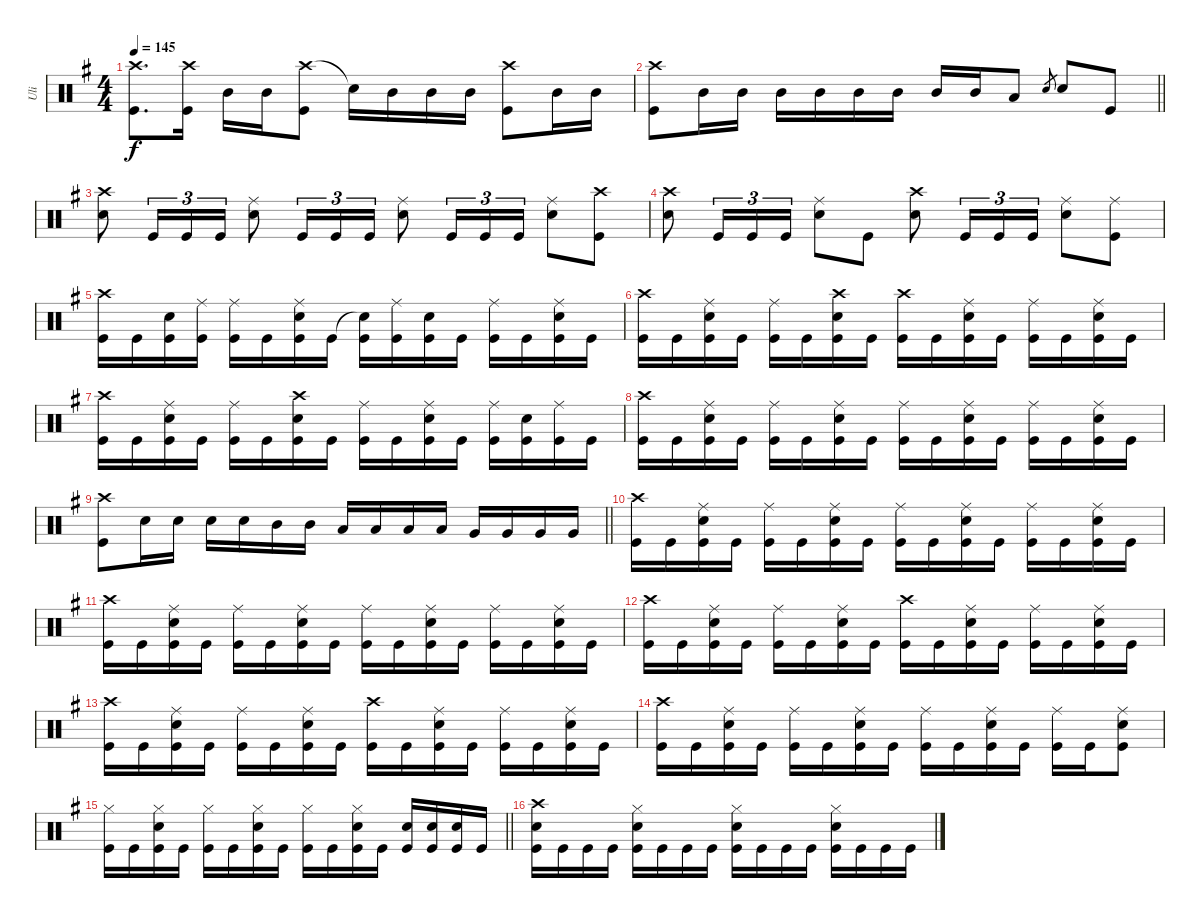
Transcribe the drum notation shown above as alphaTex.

\track ("Uli" "Uli") {instrument percussion}
\staff {score}
\articulation defaults
\ts (4 4)
\tempo 145
\clef neutral
\ks eminor
("Crash high (hit)" "Kick (hit)").8{d dy f} ("Crash high (hit)" "Kick (hit)").16 "Mid Tom (hit)".16 "Mid Tom (hit)".16 ("Crash high (hit)" "Kick (hit)").8 "Snare (hit)"{t}.16 "Mid Tom (hit)".16 "Mid Tom (hit)".16 "Mid Tom (hit)".16 ("Crash high (hit)" "Kick (hit)").8 "Mid Tom (hit)".16 "Mid Tom (hit)".16 |
\barLineRight lightlight
("Crash high (hit)" "Kick (hit)").8 "Mid Tom (hit)".16 "Mid Tom (hit)".16 "Mid Tom (hit)".16 "Mid Tom (hit)".16 "Mid Tom (hit)".16 "Mid Tom (hit)".16 "Mid Tom (hit)".16 "Mid Tom (hit)".16 "Low Tom (hit)".8 "Snare (hit) 2".8{gr} "Snare (hit) 2".8 "Kick (hit)".8 |
("Crash high (hit)" "Snare (hit) 2").8 "Kick (hit)".16{tu (3 2)} "Kick (hit)".16{tu (3 2)} "Kick (hit)".16{tu (3 2)} ("Ride (middle)" "Snare (hit) 2").8 "Kick (hit)".16{tu (3 2)} "Kick (hit)".16{tu (3 2)} "Kick (hit)".16{tu (3 2)} ("Ride (middle)" "Snare (hit) 2").8 "Kick (hit)".16{tu (3 2)} "Kick (hit)".16{tu (3 2)} "Kick (hit)".16{tu (3 2)} ("Ride (middle)" "Snare (hit) 2").8 ("Crash high (hit)" "Kick (hit)").8 |
("Crash high (hit)" "Snare (hit) 2").8 "Kick (hit)".16{tu (3 2)} "Kick (hit)".16{tu (3 2)} "Kick (hit)".16{tu (3 2)} ("Ride (middle)" "Snare (hit) 2").8 "Kick (hit)".8 ("Crash high (hit)" "Snare (hit) 2").8 "Kick (hit)".16{tu (3 2)} "Kick (hit)".16{tu (3 2)} "Kick (hit)".16{tu (3 2)} ("Ride (middle)" "Snare (hit) 2").8 ("Ride (middle)" "Kick (hit)").8 |
("Crash high (hit)" "Kick (hit)").16 "Kick (hit)".16 ("Snare (hit) 2" "Kick (hit)").16 ("Ride (middle)" "Kick (hit)").16 ("Ride (middle)" "Kick (hit)").16 "Kick (hit)".16 ("Ride (middle)" "Snare (hit) 2" "Kick (hit)").16 "Kick (hit)".16 ("Snare (hit)"{t} "Kick (hit)").16 ("Ride (middle)" "Kick (hit)").16 ("Snare (hit) 2" "Kick (hit)").16 "Kick (hit)".16 ("Ride (middle)" "Kick (hit)").16 "Kick (hit)".16 ("Ride (middle)" "Snare (hit) 2" "Kick (hit)").16 "Kick (hit)".16 |
("Crash high (hit)" "Kick (hit)").16 "Kick (hit)".16 ("Ride (middle)" "Snare (hit) 2" "Kick (hit)").16 "Kick (hit)".16 ("Ride (middle)" "Kick (hit)").16 "Kick (hit)".16 ("Crash high (hit)" "Snare (hit) 2" "Kick (hit)").16 "Kick (hit)".16 ("Crash high (hit)" "Kick (hit)").16 "Kick (hit)".16 ("Ride (middle)" "Snare (hit) 2" "Kick (hit)").16 "Kick (hit)".16 ("Ride (middle)" "Kick (hit)").16 "Kick (hit)".16 ("Ride (middle)" "Snare (hit) 2" "Kick (hit)").16 "Kick (hit)".16 |
("Crash high (hit)" "Kick (hit)").16 "Kick (hit)".16 ("Ride (middle)" "Snare (hit) 2" "Kick (hit)").16 "Kick (hit)".16 ("Ride (middle)" "Kick (hit)").16 "Kick (hit)".16 ("Crash high (hit)" "Snare (hit) 2" "Kick (hit)").16 "Kick (hit)".16 ("Ride (middle)" "Kick (hit)").16 "Kick (hit)".16 ("Ride (middle)" "Snare (hit) 2" "Kick (hit)").16 "Kick (hit)".16 ("Ride (middle)" "Kick (hit)").16 ("Snare (hit) 2" "Kick (hit)").16 ("Ride (middle)" "Kick (hit)").16 "Kick (hit)".16 |
("Crash high (hit)" "Kick (hit)").16 "Kick (hit)".16 ("Ride (middle)" "Snare (hit) 2" "Kick (hit)").16 "Kick (hit)".16 ("Ride (middle)" "Kick (hit)").16 "Kick (hit)".16 ("Ride (middle)" "Snare (hit) 2" "Kick (hit)").16 "Kick (hit)".16 ("Ride (middle)" "Kick (hit)").16 "Kick (hit)".16 ("Ride (middle)" "Snare (hit) 2" "Kick (hit)").16 "Kick (hit)".16 ("Ride (middle)" "Kick (hit)").16 "Kick (hit)".16 ("Ride (middle)" "Snare (hit) 2" "Kick (hit)").16 "Kick (hit)".16 |
\barLineRight lightlight
("Crash high (hit)" "Kick (hit)").8 "Snare (hit) 2".16 "Snare (hit) 2".16 "Snare (hit) 2".16 "Snare (hit) 2".16 "Mid Tom (hit)".16 "Mid Tom (hit)".16 "Low Tom (hit)".16 "Low Tom (hit)".16 "Low Tom (hit)".16 "Low Tom (hit)".16 "Very Low Tom (hit)".16 "Very Low Tom (hit)".16 "Very Low Tom (hit)".16 "Very Low Tom (hit)".16 |
("Crash high (hit)" "Kick (hit)").16 "Kick (hit)".16 ("Ride (middle)" "Snare (hit) 2" "Kick (hit)").16 "Kick (hit)".16 ("Ride (middle)" "Kick (hit)").16 "Kick (hit)".16 ("Ride (middle)" "Snare (hit) 2" "Kick (hit)").16 "Kick (hit)".16 ("Ride (middle)" "Kick (hit)").16 "Kick (hit)".16 ("Ride (middle)" "Snare (hit) 2" "Kick (hit)").16 "Kick (hit)".16 ("Ride (middle)" "Kick (hit)").16 "Kick (hit)".16 ("Ride (middle)" "Snare (hit) 2" "Kick (hit)").16 "Kick (hit)".16 |
("Crash high (hit)" "Kick (hit)").16 "Kick (hit)".16 ("Ride (middle)" "Snare (hit) 2" "Kick (hit)").16 "Kick (hit)".16 ("Ride (middle)" "Kick (hit)").16 "Kick (hit)".16 ("Ride (middle)" "Snare (hit) 2" "Kick (hit)").16 "Kick (hit)".16 ("Ride (middle)" "Kick (hit)").16 "Kick (hit)".16 ("Ride (middle)" "Snare (hit) 2" "Kick (hit)").16 "Kick (hit)".16 ("Ride (middle)" "Kick (hit)").16 "Kick (hit)".16 ("Ride (middle)" "Snare (hit) 2" "Kick (hit)").16 "Kick (hit)".16 |
("Crash high (hit)" "Kick (hit)").16 "Kick (hit)".16 ("Ride (middle)" "Snare (hit) 2" "Kick (hit)").16 "Kick (hit)".16 ("Ride (middle)" "Kick (hit)").16 "Kick (hit)".16 ("Ride (middle)" "Snare (hit) 2" "Kick (hit)").16 "Kick (hit)".16 ("Crash high (hit)" "Kick (hit)").16 "Kick (hit)".16 ("Ride (middle)" "Snare (hit) 2" "Kick (hit)").16 "Kick (hit)".16 ("Ride (middle)" "Kick (hit)").16 "Kick (hit)".16 ("Ride (middle)" "Snare (hit) 2" "Kick (hit)").16 "Kick (hit)".16 |
("Crash high (hit)" "Kick (hit)").16 "Kick (hit)".16 ("Ride (middle)" "Snare (hit) 2" "Kick (hit)").16 "Kick (hit)".16 ("Ride (middle)" "Kick (hit)").16 "Kick (hit)".16 ("Ride (middle)" "Snare (hit) 2" "Kick (hit)").16 "Kick (hit)".16 ("Crash high (hit)" "Kick (hit)").16 "Kick (hit)".16 ("Ride (middle)" "Snare (hit) 2" "Kick (hit)").16 "Kick (hit)".16 ("Ride (middle)" "Kick (hit)").16 "Kick (hit)".16 ("Ride (middle)" "Snare (hit) 2" "Kick (hit)").16 "Kick (hit)".16 |
("Crash high (hit)" "Kick (hit)").16 "Kick (hit)".16 ("Ride (middle)" "Snare (hit) 2" "Kick (hit)").16 "Kick (hit)".16 ("Ride (middle)" "Kick (hit)").16 "Kick (hit)".16 ("Ride (middle)" "Snare (hit) 2" "Kick (hit)").16 "Kick (hit)".16 ("Ride (middle)" "Kick (hit)").16 "Kick (hit)".16 ("Ride (middle)" "Snare (hit) 2" "Kick (hit)").16 "Kick (hit)".16 ("Ride (middle)" "Kick (hit)").16 "Kick (hit)".16 ("Ride (middle)" "Snare (hit) 2" "Kick (hit)").8 |
\barLineRight lightlight
("Hi-Hat (closed)" "Kick (hit)").16 "Kick (hit)".16 ("Hi-Hat (closed)" "Snare (hit) 2" "Kick (hit)").16 "Kick (hit)".16 ("Hi-Hat (closed)" "Kick (hit)").16 "Kick (hit)".16 ("Hi-Hat (closed)" "Snare (hit) 2" "Kick (hit)").16 "Kick (hit)".16 ("Hi-Hat (closed)" "Kick (hit)").16 "Kick (hit)".16 ("Hi-Hat (closed)" "Snare (hit) 2" "Kick (hit)").16 "Kick (hit)".16 ("Snare (hit) 2" "Kick (hit)").16 ("Snare (hit) 2" "Kick (hit)").16 ("Snare (hit) 2" "Kick (hit)").16 "Kick (hit)".16 |
("Crash high (hit)" "Snare (hit) 2" "Kick (hit)").16 "Kick (hit)".16 "Kick (hit)".16 "Kick (hit)".16 ("Hi-Hat (closed)" "Snare (hit) 2" "Kick (hit)").16 "Kick (hit)".16 "Kick (hit)".16 "Kick (hit)".16 ("Hi-Hat (closed)" "Snare (hit) 2" "Kick (hit)").16 "Kick (hit)".16 "Kick (hit)".16 "Kick (hit)".16 ("Hi-Hat (closed)" "Snare (hit) 2" "Kick (hit)").16 "Kick (hit)".16 "Kick (hit)".16 "Kick (hit)".16
